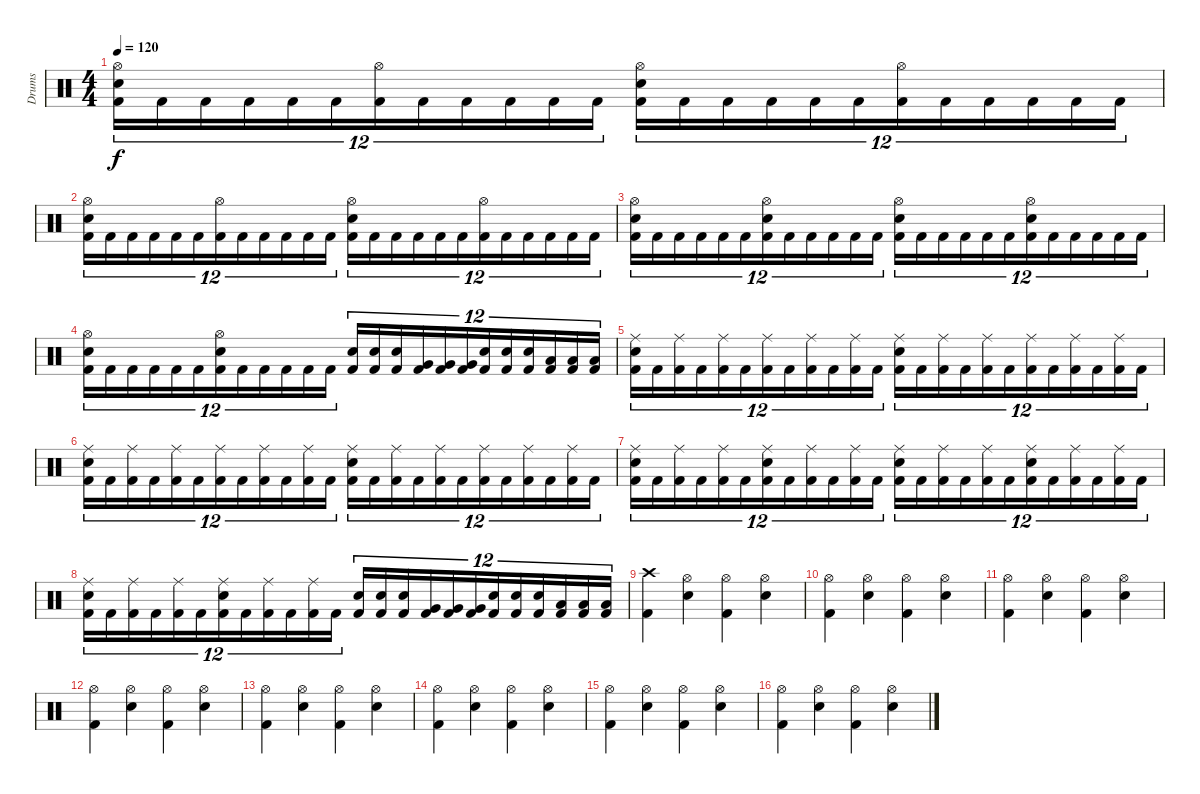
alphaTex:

\track ("Drums" "Drums") {instrument percussion}
\staff {score}
\articulation defaults
\ts (4 4)
\tempo 120
\clef neutral
\ks c
("Hi-Hat (open)" "Electric Snare (hit)" "Kick (hit) 2").16{tu (12 8) dy f} "Kick (hit) 2".16{tu (12 8)} "Kick (hit) 2".16{tu (12 8)} "Kick (hit) 2".16{tu (12 8)} "Kick (hit) 2".16{tu (12 8)} "Kick (hit) 2".16{tu (12 8)} ("Hi-Hat (open)" "Kick (hit) 2").16{tu (12 8)} "Kick (hit) 2".16{tu (12 8)} "Kick (hit) 2".16{tu (12 8)} "Kick (hit) 2".16{tu (12 8)} "Kick (hit) 2".16{tu (12 8)} "Kick (hit) 2".16{tu (12 8)} ("Hi-Hat (open)" "Electric Snare (hit)" "Kick (hit) 2").16{tu (12 8)} "Kick (hit) 2".16{tu (12 8)} "Kick (hit) 2".16{tu (12 8)} "Kick (hit) 2".16{tu (12 8)} "Kick (hit) 2".16{tu (12 8)} "Kick (hit) 2".16{tu (12 8)} ("Hi-Hat (open)" "Kick (hit) 2").16{tu (12 8)} "Kick (hit) 2".16{tu (12 8)} "Kick (hit) 2".16{tu (12 8)} "Kick (hit) 2".16{tu (12 8)} "Kick (hit) 2".16{tu (12 8)} "Kick (hit) 2".16{tu (12 8)} |
("Hi-Hat (open)" "Electric Snare (hit)" "Kick (hit) 2").16{tu (12 8)} "Kick (hit) 2".16{tu (12 8)} "Kick (hit) 2".16{tu (12 8)} "Kick (hit) 2".16{tu (12 8)} "Kick (hit) 2".16{tu (12 8)} "Kick (hit) 2".16{tu (12 8)} ("Hi-Hat (open)" "Kick (hit) 2").16{tu (12 8)} "Kick (hit) 2".16{tu (12 8)} "Kick (hit) 2".16{tu (12 8)} "Kick (hit) 2".16{tu (12 8)} "Kick (hit) 2".16{tu (12 8)} "Kick (hit) 2".16{tu (12 8)} ("Hi-Hat (open)" "Electric Snare (hit)" "Kick (hit) 2").16{tu (12 8)} "Kick (hit) 2".16{tu (12 8)} "Kick (hit) 2".16{tu (12 8)} "Kick (hit) 2".16{tu (12 8)} "Kick (hit) 2".16{tu (12 8)} "Kick (hit) 2".16{tu (12 8)} ("Hi-Hat (open)" "Kick (hit) 2").16{tu (12 8)} "Kick (hit) 2".16{tu (12 8)} "Kick (hit) 2".16{tu (12 8)} "Kick (hit) 2".16{tu (12 8)} "Kick (hit) 2".16{tu (12 8)} "Kick (hit) 2".16{tu (12 8)} |
("Hi-Hat (open)" "Electric Snare (hit)" "Kick (hit) 2").16{tu (12 8)} "Kick (hit) 2".16{tu (12 8)} "Kick (hit) 2".16{tu (12 8)} "Kick (hit) 2".16{tu (12 8)} "Kick (hit) 2".16{tu (12 8)} "Kick (hit) 2".16{tu (12 8)} ("Hi-Hat (open)" "Electric Snare (hit)" "Kick (hit) 2").16{tu (12 8)} "Kick (hit) 2".16{tu (12 8)} "Kick (hit) 2".16{tu (12 8)} "Kick (hit) 2".16{tu (12 8)} "Kick (hit) 2".16{tu (12 8)} "Kick (hit) 2".16{tu (12 8)} ("Hi-Hat (open)" "Electric Snare (hit)" "Kick (hit) 2").16{tu (12 8)} "Kick (hit) 2".16{tu (12 8)} "Kick (hit) 2".16{tu (12 8)} "Kick (hit) 2".16{tu (12 8)} "Kick (hit) 2".16{tu (12 8)} "Kick (hit) 2".16{tu (12 8)} ("Hi-Hat (open)" "Electric Snare (hit)" "Kick (hit) 2").16{tu (12 8)} "Kick (hit) 2".16{tu (12 8)} "Kick (hit) 2".16{tu (12 8)} "Kick (hit) 2".16{tu (12 8)} "Kick (hit) 2".16{tu (12 8)} "Kick (hit) 2".16{tu (12 8)} |
("Hi-Hat (open)" "Electric Snare (hit)" "Kick (hit) 2").16{tu (12 8)} "Kick (hit) 2".16{tu (12 8)} "Kick (hit) 2".16{tu (12 8)} "Kick (hit) 2".16{tu (12 8)} "Kick (hit) 2".16{tu (12 8)} "Kick (hit) 2".16{tu (12 8)} ("Hi-Hat (open)" "Electric Snare (hit)" "Kick (hit) 2").16{tu (12 8)} "Kick (hit) 2".16{tu (12 8)} "Kick (hit) 2".16{tu (12 8)} "Kick (hit) 2".16{tu (12 8)} "Kick (hit) 2".16{tu (12 8)} "Kick (hit) 2".16{tu (12 8)} ("Electric Snare (hit)" "Kick (hit) 2").16{tu (12 8)} ("Electric Snare (hit)" "Kick (hit) 2").16{tu (12 8)} ("Electric Snare (hit)" "Kick (hit) 2").16{tu (12 8)} ("Very Low Tom (hit)" "Kick (hit) 2").16{tu (12 8)} ("Very Low Tom (hit)" "Kick (hit) 2").16{tu (12 8)} ("Very Low Tom (hit)" "Kick (hit) 2").16{tu (12 8)} ("Electric Snare (hit)" "Kick (hit) 2").16{tu (12 8)} ("Electric Snare (hit)" "Kick (hit) 2").16{tu (12 8)} ("Electric Snare (hit)" "Kick (hit) 2").16{tu (12 8)} ("Low Floor Tom (hit)" "Kick (hit) 2").16{tu (12 8)} ("Low Floor Tom (hit)" "Kick (hit) 2").16{tu (12 8)} ("Low Floor Tom (hit)" "Kick (hit) 2").16{tu (12 8)} |
("Ride (middle)" "Electric Snare (hit)" "Kick (hit) 2").16{tu (12 8)} "Kick (hit) 2".16{tu (12 8)} ("Ride (middle)" "Kick (hit) 2").16{tu (12 8)} "Kick (hit) 2".16{tu (12 8)} ("Ride (middle)" "Kick (hit) 2").16{tu (12 8)} "Kick (hit) 2".16{tu (12 8)} ("Ride (middle)" "Kick (hit) 2").16{tu (12 8)} "Kick (hit) 2".16{tu (12 8)} ("Ride (middle)" "Kick (hit) 2").16{tu (12 8)} "Kick (hit) 2".16{tu (12 8)} ("Ride (middle)" "Kick (hit) 2").16{tu (12 8)} "Kick (hit) 2".16{tu (12 8)} ("Ride (middle)" "Electric Snare (hit)" "Kick (hit) 2").16{tu (12 8)} "Kick (hit) 2".16{tu (12 8)} ("Ride (middle)" "Kick (hit) 2").16{tu (12 8)} "Kick (hit) 2".16{tu (12 8)} ("Ride (middle)" "Kick (hit) 2").16{tu (12 8)} "Kick (hit) 2".16{tu (12 8)} ("Ride (middle)" "Kick (hit) 2").16{tu (12 8)} "Kick (hit) 2".16{tu (12 8)} ("Ride (middle)" "Kick (hit) 2").16{tu (12 8)} "Kick (hit) 2".16{tu (12 8)} ("Ride (middle)" "Kick (hit) 2").16{tu (12 8)} "Kick (hit) 2".16{tu (12 8)} |
("Ride (middle)" "Electric Snare (hit)" "Kick (hit) 2").16{tu (12 8)} "Kick (hit) 2".16{tu (12 8)} ("Ride (middle)" "Kick (hit) 2").16{tu (12 8)} "Kick (hit) 2".16{tu (12 8)} ("Ride (middle)" "Kick (hit) 2").16{tu (12 8)} "Kick (hit) 2".16{tu (12 8)} ("Ride (middle)" "Kick (hit) 2").16{tu (12 8)} "Kick (hit) 2".16{tu (12 8)} ("Ride (middle)" "Kick (hit) 2").16{tu (12 8)} "Kick (hit) 2".16{tu (12 8)} ("Ride (middle)" "Kick (hit) 2").16{tu (12 8)} "Kick (hit) 2".16{tu (12 8)} ("Ride (middle)" "Electric Snare (hit)" "Kick (hit) 2").16{tu (12 8)} "Kick (hit) 2".16{tu (12 8)} ("Ride (middle)" "Kick (hit) 2").16{tu (12 8)} "Kick (hit) 2".16{tu (12 8)} ("Ride (middle)" "Kick (hit) 2").16{tu (12 8)} "Kick (hit) 2".16{tu (12 8)} ("Ride (middle)" "Kick (hit) 2").16{tu (12 8)} "Kick (hit) 2".16{tu (12 8)} ("Ride (middle)" "Kick (hit) 2").16{tu (12 8)} "Kick (hit) 2".16{tu (12 8)} ("Ride (middle)" "Kick (hit) 2").16{tu (12 8)} "Kick (hit) 2".16{tu (12 8)} |
("Ride (middle)" "Electric Snare (hit)" "Kick (hit) 2").16{tu (12 8)} "Kick (hit) 2".16{tu (12 8)} ("Ride (middle)" "Kick (hit) 2").16{tu (12 8)} "Kick (hit) 2".16{tu (12 8)} ("Ride (middle)" "Kick (hit) 2").16{tu (12 8)} "Kick (hit) 2".16{tu (12 8)} ("Ride (middle)" "Electric Snare (hit)" "Kick (hit) 2").16{tu (12 8)} "Kick (hit) 2".16{tu (12 8)} ("Ride (middle)" "Kick (hit) 2").16{tu (12 8)} "Kick (hit) 2".16{tu (12 8)} ("Ride (middle)" "Kick (hit) 2").16{tu (12 8)} "Kick (hit) 2".16{tu (12 8)} ("Ride (middle)" "Electric Snare (hit)" "Kick (hit) 2").16{tu (12 8)} "Kick (hit) 2".16{tu (12 8)} ("Ride (middle)" "Kick (hit) 2").16{tu (12 8)} "Kick (hit) 2".16{tu (12 8)} ("Ride (middle)" "Kick (hit) 2").16{tu (12 8)} "Kick (hit) 2".16{tu (12 8)} ("Ride (middle)" "Electric Snare (hit)" "Kick (hit) 2").16{tu (12 8)} "Kick (hit) 2".16{tu (12 8)} ("Ride (middle)" "Kick (hit) 2").16{tu (12 8)} "Kick (hit) 2".16{tu (12 8)} ("Ride (middle)" "Kick (hit) 2").16{tu (12 8)} "Kick (hit) 2".16{tu (12 8)} |
("Ride (middle)" "Electric Snare (hit)" "Kick (hit) 2").16{tu (12 8)} "Kick (hit) 2".16{tu (12 8)} ("Ride (middle)" "Kick (hit) 2").16{tu (12 8)} "Kick (hit) 2".16{tu (12 8)} ("Ride (middle)" "Kick (hit) 2").16{tu (12 8)} "Kick (hit) 2".16{tu (12 8)} ("Ride (middle)" "Electric Snare (hit)" "Kick (hit) 2").16{tu (12 8)} "Kick (hit) 2".16{tu (12 8)} ("Ride (middle)" "Kick (hit) 2").16{tu (12 8)} "Kick (hit) 2".16{tu (12 8)} ("Ride (middle)" "Kick (hit) 2").16{tu (12 8)} "Kick (hit) 2".16{tu (12 8)} ("Electric Snare (hit)" "Kick (hit) 2").16{tu (12 8)} ("Electric Snare (hit)" "Kick (hit) 2").16{tu (12 8)} ("Electric Snare (hit)" "Kick (hit) 2").16{tu (12 8)} ("Very Low Tom (hit)" "Kick (hit) 2").16{tu (12 8)} ("Very Low Tom (hit)" "Kick (hit) 2").16{tu (12 8)} ("Very Low Tom (hit)" "Kick (hit) 2").16{tu (12 8)} ("Electric Snare (hit)" "Kick (hit) 2").16{tu (12 8)} ("Electric Snare (hit)" "Kick (hit) 2").16{tu (12 8)} ("Electric Snare (hit)" "Kick (hit) 2").16{tu (12 8)} ("Low Floor Tom (hit)" "Kick (hit) 2").16{tu (12 8)} ("Low Floor Tom (hit)" "Kick (hit) 2").16{tu (12 8)} ("Low Floor Tom (hit)" "Kick (hit) 2").16{tu (12 8)} |
("Crash high (hit)" "Kick (hit) 2").4 ("Hi-Hat (open)" "Electric Snare (hit)").4 ("Hi-Hat (open)" "Kick (hit) 2").4 ("Hi-Hat (open)" "Electric Snare (hit)").4 |
("Hi-Hat (open)" "Kick (hit) 2").4 ("Hi-Hat (open)" "Electric Snare (hit)").4 ("Hi-Hat (open)" "Kick (hit) 2").4 ("Hi-Hat (open)" "Electric Snare (hit)").4 |
("Hi-Hat (open)" "Kick (hit) 2").4 ("Hi-Hat (open)" "Electric Snare (hit)").4 ("Hi-Hat (open)" "Kick (hit) 2").4 ("Hi-Hat (open)" "Electric Snare (hit)").4 |
("Hi-Hat (open)" "Kick (hit) 2").4 ("Hi-Hat (open)" "Electric Snare (hit)").4 ("Hi-Hat (open)" "Kick (hit) 2").4 ("Hi-Hat (open)" "Electric Snare (hit)").4 |
("Hi-Hat (open)" "Kick (hit) 2").4 ("Hi-Hat (open)" "Electric Snare (hit)").4 ("Hi-Hat (open)" "Kick (hit) 2").4 ("Hi-Hat (open)" "Electric Snare (hit)").4 |
("Hi-Hat (open)" "Kick (hit) 2").4 ("Hi-Hat (open)" "Electric Snare (hit)").4 ("Hi-Hat (open)" "Kick (hit) 2").4 ("Hi-Hat (open)" "Electric Snare (hit)").4 |
("Hi-Hat (open)" "Kick (hit) 2").4 ("Hi-Hat (open)" "Electric Snare (hit)").4 ("Hi-Hat (open)" "Kick (hit) 2").4 ("Hi-Hat (open)" "Electric Snare (hit)").4 |
("Hi-Hat (open)" "Kick (hit) 2").4 ("Hi-Hat (open)" "Electric Snare (hit)").4 ("Hi-Hat (open)" "Kick (hit) 2").4 ("Hi-Hat (open)" "Electric Snare (hit)").4
